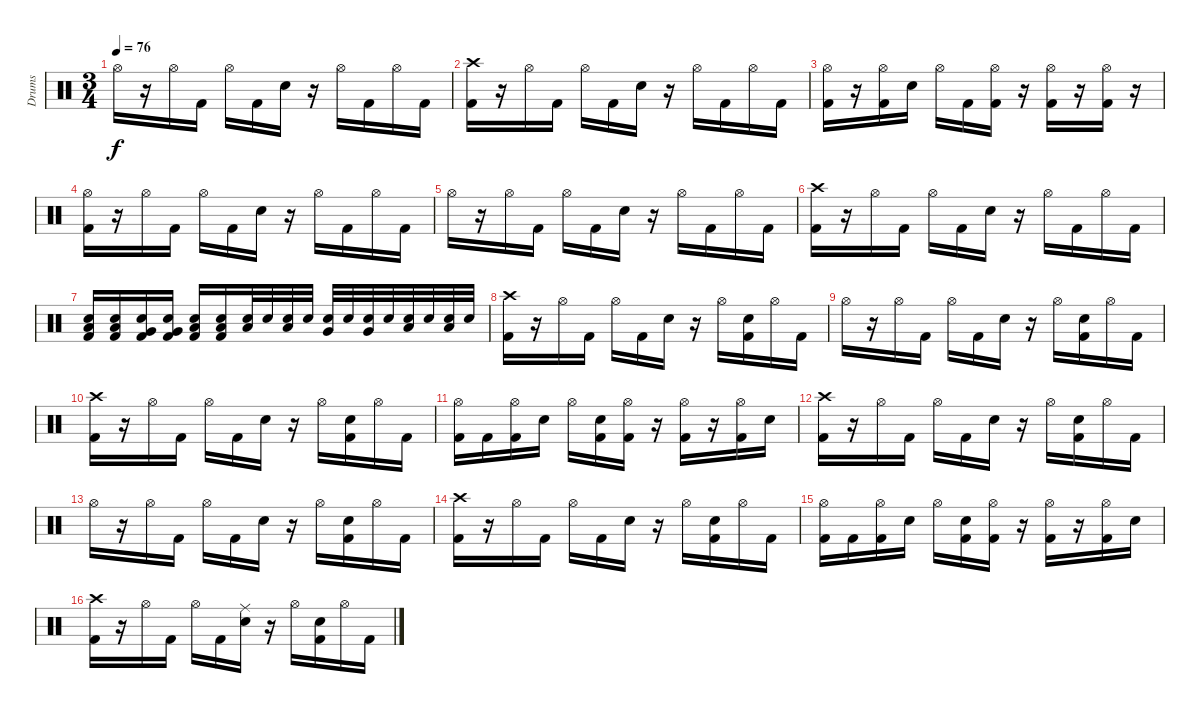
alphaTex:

\track ("Drums" "Drums") {instrument percussion}
\staff {score}
\articulation defaults
\ts (3 4)
\tempo 76
\clef neutral
\ks c "Hi-Hat (open)".16{dy f}
r.16 "Hi-Hat (open)".16 "Kick (hit) 2".16 "Hi-Hat (open)".16 "Kick (hit) 2".16 "Snare (hit) 2".16 r.16 "Hi-Hat (open)".16 "Kick (hit) 2".16 "Hi-Hat (open)".16 "Kick (hit) 2".16 |
("Crash high (hit)" "Kick (hit) 2").16 r.16 "Hi-Hat (open)".16 "Kick (hit) 2".16 "Hi-Hat (open)".16 "Kick (hit) 2".16 "Snare (hit) 2".16 r.16 "Hi-Hat (open)".16 "Kick (hit) 2".16 "Hi-Hat (open)".16 "Kick (hit) 2".16 |
("Hi-Hat (open)" "Kick (hit) 2").16 r.16 ("Hi-Hat (open)" "Kick (hit) 2").16 "Snare (hit) 2".16 "Hi-Hat (open)".16 "Kick (hit) 2".16 ("Hi-Hat (open)" "Kick (hit) 2").16 r.16 ("Hi-Hat (open)" "Kick (hit) 2").16 r.16 ("Hi-Hat (open)" "Kick (hit) 2").16 r.16 |
("Hi-Hat (open)" "Kick (hit) 2").16 r.16 "Hi-Hat (open)".16 "Kick (hit) 2".16 "Hi-Hat (open)".16 "Kick (hit) 2".16 "Snare (hit) 2".16 r.16 "Hi-Hat (open)".16 "Kick (hit) 2".16 "Hi-Hat (open)".16 "Kick (hit) 2".16 |
"Hi-Hat (open)".16 r.16 "Hi-Hat (open)".16 "Kick (hit) 2".16 "Hi-Hat (open)".16 "Kick (hit) 2".16 "Snare (hit) 2".16 r.16 "Hi-Hat (open)".16 "Kick (hit) 2".16 "Hi-Hat (open)".16 "Kick (hit) 2".16 |
("Crash high (hit)" "Kick (hit) 2").16 r.16 "Hi-Hat (open)".16 "Kick (hit) 2".16 "Hi-Hat (open)".16 "Kick (hit) 2".16 "Snare (hit) 2".16 r.16 "Hi-Hat (open)".16 "Kick (hit) 2".16 "Hi-Hat (open)".16 "Kick (hit) 2".16 |
("Snare (hit) 2" "Kick (hit) 2" "Low Tom (hit)").16 ("Snare (hit) 2" "Kick (hit) 2" "Low Tom (hit)").16 ("Snare (hit) 2" "Kick (hit) 2" "Very Low Tom (hit)").16 ("Snare (hit) 2" "Kick (hit) 2" "Very Low Tom (hit)").16 ("Snare (hit) 2" "Kick (hit) 2" "Low Floor Tom (hit)").16 ("Snare (hit) 2" "Kick (hit) 2" "Low Floor Tom (hit)").16 ("Snare (hit) 2" "Low Tom (hit)").32 "Snare (hit) 2".32 ("Snare (hit) 2" "Low Tom (hit)").32 "Snare (hit) 2".32 ("Snare (hit) 2" "Very Low Tom (hit)").32 "Snare (hit) 2".32 ("Snare (hit) 2" "Very Low Tom (hit)").32 "Snare (hit) 2".32 ("Snare (hit) 2" "Low Floor Tom (hit)").32 "Snare (hit) 2".32 ("Snare (hit) 2" "Low Floor Tom (hit)").32 "Snare (hit) 2".32 |
("Crash high (hit)" "Kick (hit) 2").16 r.16 "Hi-Hat (open)".16 "Kick (hit) 2".16 "Hi-Hat (open)".16 "Kick (hit) 2".16 "Snare (hit) 2".16 r.16 "Hi-Hat (open)".16 ("Snare (hit) 2" "Kick (hit) 2").16 "Hi-Hat (open)".16 "Kick (hit) 2".16 |
"Hi-Hat (open)".16 r.16 "Hi-Hat (open)".16 "Kick (hit) 2".16 "Hi-Hat (open)".16 "Kick (hit) 2".16 "Snare (hit) 2".16 r.16 "Hi-Hat (open)".16 ("Snare (hit) 2" "Kick (hit) 2").16 "Hi-Hat (open)".16 "Kick (hit) 2".16 |
("Crash high (hit)" "Kick (hit) 2").16 r.16 "Hi-Hat (open)".16 "Kick (hit) 2".16 "Hi-Hat (open)".16 "Kick (hit) 2".16 "Snare (hit) 2".16 r.16 "Hi-Hat (open)".16 ("Snare (hit) 2" "Kick (hit) 2").16 "Hi-Hat (open)".16 "Kick (hit) 2".16 |
("Hi-Hat (open)" "Kick (hit) 2").16 "Kick (hit) 2".16 ("Hi-Hat (open)" "Kick (hit) 2").16 "Snare (hit) 2".16 "Hi-Hat (open)".16 ("Snare (hit) 2" "Kick (hit) 2").16 ("Hi-Hat (open)" "Kick (hit) 2").16 r.16 ("Hi-Hat (open)" "Kick (hit) 2").16 r.16 ("Hi-Hat (open)" "Kick (hit) 2").16 "Snare (hit) 2".16 |
("Crash high (hit)" "Kick (hit) 2").16 r.16 "Hi-Hat (open)".16 "Kick (hit) 2".16 "Hi-Hat (open)".16 "Kick (hit) 2".16 "Snare (hit) 2".16 r.16 "Hi-Hat (open)".16 ("Snare (hit) 2" "Kick (hit) 2").16 "Hi-Hat (open)".16 "Kick (hit) 2".16 |
"Hi-Hat (open)".16 r.16 "Hi-Hat (open)".16 "Kick (hit) 2".16 "Hi-Hat (open)".16 "Kick (hit) 2".16 "Snare (hit) 2".16 r.16 "Hi-Hat (open)".16 ("Snare (hit) 2" "Kick (hit) 2").16 "Hi-Hat (open)".16 "Kick (hit) 2".16 |
("Crash high (hit)" "Kick (hit) 2").16 r.16 "Hi-Hat (open)".16 "Kick (hit) 2".16 "Hi-Hat (open)".16 "Kick (hit) 2".16 "Snare (hit) 2".16 r.16 "Hi-Hat (open)".16 ("Snare (hit) 2" "Kick (hit) 2").16 "Hi-Hat (open)".16 "Kick (hit) 2".16 |
("Hi-Hat (open)" "Kick (hit) 2").16 "Kick (hit) 2".16 ("Hi-Hat (open)" "Kick (hit) 2").16 "Snare (hit) 2".16 "Hi-Hat (open)".16 ("Snare (hit) 2" "Kick (hit) 2").16 ("Hi-Hat (open)" "Kick (hit) 2").16 r.16 ("Hi-Hat (open)" "Kick (hit) 2").16 r.16 ("Hi-Hat (open)" "Kick (hit) 2").16 "Snare (hit) 2".16 |
("Crash high (hit)" "Kick (hit) 2").16 r.16 "Hi-Hat (open)".16 "Kick (hit) 2".16 "Hi-Hat (open)".16 "Kick (hit) 2".16 ("Ride (middle)" "Snare (hit) 2").16 r.16 "Hi-Hat (open)".16 ("Snare (hit) 2" "Kick (hit) 2").16 "Hi-Hat (open)".16 "Kick (hit) 2".16
